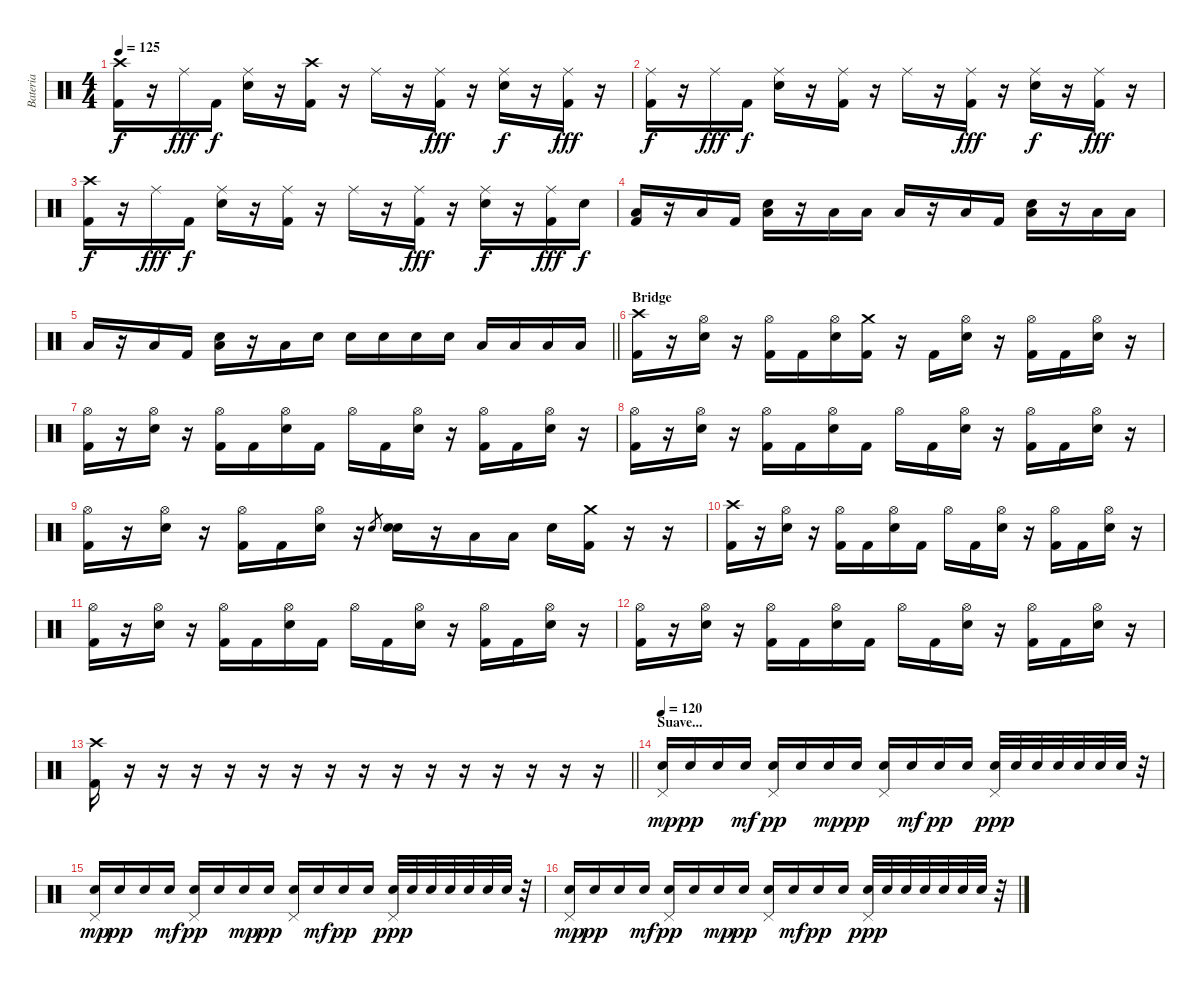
\track ("Bateria" "Bateria") {instrument percussion}
\staff {score}
\articulation defaults
\ts (4 4)
\tempo 125
\clef neutral
\ks c
("Crash high (hit)" "Kick (hit) 2").16{dy f} r.16 "Ride (middle)".16{dy fff} "Kick (hit) 2".16{dy f} ("Ride (middle)" "Electric Snare (hit)").16 r.16 ("Crash high (hit)" "Kick (hit) 2").16 r.16 "Ride (middle)".16 r.16 ("Ride (middle)" "Kick (hit) 2").16{dy fff} r.16 ("Ride (middle)" "Electric Snare (hit)").16{dy f} r.16 ("Ride (middle)" "Kick (hit) 2").16{dy fff} r.16 |
("Ride (middle)" "Kick (hit) 2").16{dy f} r.16 "Ride (middle)".16{dy fff} "Kick (hit) 2".16{dy f} ("Ride (middle)" "Electric Snare (hit)").16 r.16 ("Ride (middle)" "Kick (hit) 2").16 r.16 "Ride (middle)".16 r.16 ("Ride (middle)" "Kick (hit) 2").16{dy fff} r.16 ("Ride (middle)" "Electric Snare (hit)").16{dy f} r.16 ("Ride (middle)" "Kick (hit) 2").16{dy fff} r.16 |
("Crash high (hit)" "Kick (hit) 2").16{dy f} r.16 "Ride (middle)".16{dy fff} "Kick (hit) 2".16{dy f} ("Ride (middle)" "Electric Snare (hit)").16 r.16 ("Ride (middle)" "Kick (hit) 2").16 r.16 "Ride (middle)".16 r.16 ("Ride (middle)" "Kick (hit) 2").16{dy fff} r.16 ("Ride (middle)" "Electric Snare (hit)").16{dy f} r.16 ("Ride (middle)" "Kick (hit) 2").16{dy fff} "Electric Snare (hit)".16{dy f} |
("Low Floor Tom (hit)" "Kick (hit) 2").16 r.16 "Low Floor Tom (hit)".16 "Kick (hit) 2".16 ("Low Floor Tom (hit)" "Electric Snare (hit)").16 r.16 "Low Floor Tom (hit)".16 "Low Tom (hit)".16 "Low Floor Tom (hit)".16 r.16 "Low Floor Tom (hit)".16 "Kick (hit) 2".16 ("Low Floor Tom (hit)" "Electric Snare (hit)").16 r.16 "Low Floor Tom (hit)".16 "Low Tom (hit)".16 |
\barLineRight lightlight "Low Floor Tom (hit)".16
r.16 "Low Floor Tom (hit)".16 "Kick (hit) 2".16 ("Low Floor Tom (hit)" "Electric Snare (hit)").16 r.16 "Low Floor Tom (hit)".16 "Electric Snare (hit)".16 "Electric Snare (hit)".16 "Electric Snare (hit)".16 "Electric Snare (hit)".16 "Electric Snare (hit)".16 "Low Tom (hit)".16 "Low Tom (hit)".16 "Low Floor Tom (hit)".16 "Low Floor Tom (hit)".16 |
\section ("" "Bridge")
("Crash high (hit)" "Kick (hit) 2").16 r.16 ("Hi-Hat (open)" "Electric Snare (hit)").16 r.16 ("Hi-Hat (open)" "Kick (hit) 2").16 "Kick (hit) 2".16 ("Hi-Hat (open)" "Electric Snare (hit)").16 ("Crash medium (hit)" "Kick (hit) 2").16 r.16 "Kick (hit) 2".16 ("Hi-Hat (open)" "Electric Snare (hit)").16 r.16 ("Hi-Hat (open)" "Kick (hit) 2").16 "Kick (hit) 2".16 ("Hi-Hat (open)" "Electric Snare (hit)").16 r.16 |
("Hi-Hat (open)" "Kick (hit) 2").16 r.16 ("Hi-Hat (open)" "Electric Snare (hit)").16 r.16 ("Hi-Hat (open)" "Kick (hit) 2").16 "Kick (hit) 2".16 ("Hi-Hat (open)" "Electric Snare (hit)").16 "Kick (hit) 2".16 "Hi-Hat (open)".16 "Kick (hit) 2".16 ("Hi-Hat (open)" "Electric Snare (hit)").16 r.16 ("Hi-Hat (open)" "Kick (hit) 2").16 "Kick (hit) 2".16 ("Hi-Hat (open)" "Electric Snare (hit)").16 r.16 |
("Hi-Hat (open)" "Kick (hit) 2").16 r.16 ("Hi-Hat (open)" "Electric Snare (hit)").16 r.16 ("Hi-Hat (open)" "Kick (hit) 2").16 "Kick (hit) 2".16 ("Hi-Hat (open)" "Electric Snare (hit)").16 "Kick (hit) 2".16 "Hi-Hat (open)".16 "Kick (hit) 2".16 ("Hi-Hat (open)" "Electric Snare (hit)").16 r.16 ("Hi-Hat (open)" "Kick (hit) 2").16 "Kick (hit) 2".16 ("Hi-Hat (open)" "Electric Snare (hit)").16 r.16 |
("Hi-Hat (open)" "Kick (hit) 2").16 r.16 ("Hi-Hat (open)" "Electric Snare (hit)").16 r.16 ("Hi-Hat (open)" "Kick (hit) 2").16 "Kick (hit) 2".16 ("Hi-Hat (open)" "Electric Snare (hit)").16 r.16 "Electric Snare (hit)".8{gr} ("Electric Snare (hit)" "Electric Snare (hit)").16 r.16 "Low Tom (hit)".16 "Low Floor Tom (hit)".16 "Electric Snare (hit)".16 ("Crash medium (hit)" "Kick (hit) 2").16 r.16 r.16 |
("Crash high (hit)" "Kick (hit) 2").16 r.16 ("Hi-Hat (open)" "Electric Snare (hit)").16 r.16 ("Hi-Hat (open)" "Kick (hit) 2").16 "Kick (hit) 2".16 ("Hi-Hat (open)" "Electric Snare (hit)").16 "Kick (hit) 2".16 "Hi-Hat (open)".16 "Kick (hit) 2".16 ("Hi-Hat (open)" "Electric Snare (hit)").16 r.16 ("Hi-Hat (open)" "Kick (hit) 2").16 "Kick (hit) 2".16 ("Hi-Hat (open)" "Electric Snare (hit)").16 r.16 |
("Hi-Hat (open)" "Kick (hit) 2").16 r.16 ("Hi-Hat (open)" "Electric Snare (hit)").16 r.16 ("Hi-Hat (open)" "Kick (hit) 2").16 "Kick (hit) 2".16 ("Hi-Hat (open)" "Electric Snare (hit)").16 "Kick (hit) 2".16 "Hi-Hat (open)".16 "Kick (hit) 2".16 ("Hi-Hat (open)" "Electric Snare (hit)").16 r.16 ("Hi-Hat (open)" "Kick (hit) 2").16 "Kick (hit) 2".16 ("Hi-Hat (open)" "Electric Snare (hit)").16 r.16 |
("Hi-Hat (open)" "Kick (hit) 2").16 r.16 ("Hi-Hat (open)" "Electric Snare (hit)").16 r.16 ("Hi-Hat (open)" "Kick (hit) 2").16 "Kick (hit) 2".16 ("Hi-Hat (open)" "Electric Snare (hit)").16 "Kick (hit) 2".16 "Hi-Hat (open)".16 "Kick (hit) 2".16 ("Hi-Hat (open)" "Electric Snare (hit)").16 r.16 ("Hi-Hat (open)" "Kick (hit) 2").16 "Kick (hit) 2".16 ("Hi-Hat (open)" "Electric Snare (hit)").16 r.16 |
\barLineRight lightlight
("Crash high (hit)" "Kick (hit) 2").16 r.16 r.16 r.16 r.16 r.16 r.16 r.16 r.16 r.16 r.16 r.16 r.16 r.16 r.16 r.16 |
\section ("" "Suave...")
\tempo 120
("Pedal Hi-Hat (hit)" "Electric Snare (hit)").16{dy mp} "Electric Snare (hit)".16{dy pp} "Electric Snare (hit)".16 "Electric Snare (hit)".16{dy mf} ("Pedal Hi-Hat (hit)" "Electric Snare (hit)").16{dy pp} "Electric Snare (hit)".16 "Electric Snare (hit)".16{dy mp} "Electric Snare (hit)".16{dy pp} ("Pedal Hi-Hat (hit)" "Electric Snare (hit)").16 "Electric Snare (hit)".16{dy mf} "Electric Snare (hit)".16{dy pp} "Electric Snare (hit)".16 ("Pedal Hi-Hat (hit)" "Electric Snare (hit)").32{dy ppp} "Electric Snare (hit)".32 "Electric Snare (hit)".32 "Electric Snare (hit)".32 "Electric Snare (hit)".32 "Electric Snare (hit)".32 "Electric Snare (hit)".32 r.32 |
("Pedal Hi-Hat (hit)" "Electric Snare (hit)").16{dy mp} "Electric Snare (hit)".16{dy pp} "Electric Snare (hit)".16 "Electric Snare (hit)".16{dy mf} ("Pedal Hi-Hat (hit)" "Electric Snare (hit)").16{dy pp} "Electric Snare (hit)".16 "Electric Snare (hit)".16{dy mp} "Electric Snare (hit)".16{dy pp} ("Pedal Hi-Hat (hit)" "Electric Snare (hit)").16 "Electric Snare (hit)".16{dy mf} "Electric Snare (hit)".16{dy pp} "Electric Snare (hit)".16 ("Pedal Hi-Hat (hit)" "Electric Snare (hit)").32{dy ppp} "Electric Snare (hit)".32 "Electric Snare (hit)".32 "Electric Snare (hit)".32 "Electric Snare (hit)".32 "Electric Snare (hit)".32 "Electric Snare (hit)".32 r.32 |
("Pedal Hi-Hat (hit)" "Electric Snare (hit)").16{dy mp} "Electric Snare (hit)".16{dy pp} "Electric Snare (hit)".16 "Electric Snare (hit)".16{dy mf} ("Pedal Hi-Hat (hit)" "Electric Snare (hit)").16{dy pp} "Electric Snare (hit)".16 "Electric Snare (hit)".16{dy mp} "Electric Snare (hit)".16{dy pp} ("Pedal Hi-Hat (hit)" "Electric Snare (hit)").16 "Electric Snare (hit)".16{dy mf} "Electric Snare (hit)".16{dy pp} "Electric Snare (hit)".16 ("Pedal Hi-Hat (hit)" "Electric Snare (hit)").32{dy ppp} "Electric Snare (hit)".32 "Electric Snare (hit)".32 "Electric Snare (hit)".32 "Electric Snare (hit)".32 "Electric Snare (hit)".32 "Electric Snare (hit)".32 r.32
